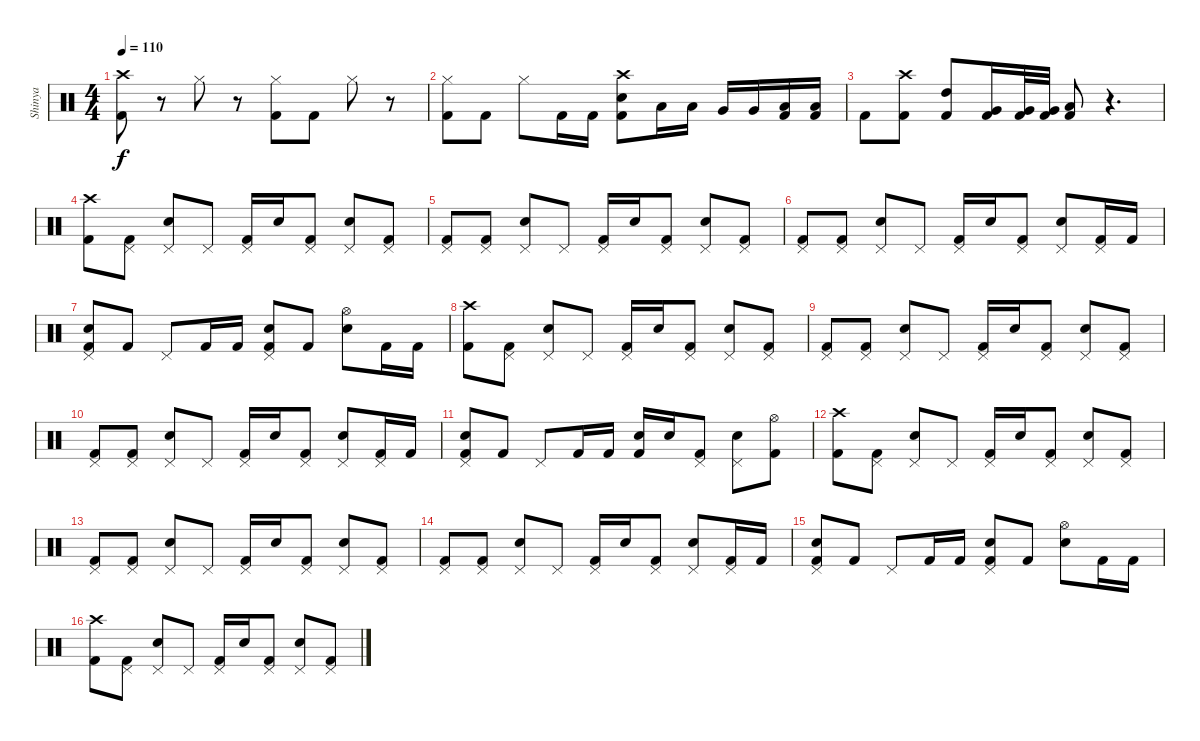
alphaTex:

\track ("Shinya" "Shinya") {instrument percussion}
\staff {score}
\articulation defaults
\ts (4 4)
\tempo 110
\clef neutral
\ks c
("Crash high (hit)" "Kick (hit) 2").8{dy f} r.8 "Hi-Hat (closed)".8 r.8 ("Hi-Hat (closed)" "Kick (hit) 2").8 "Kick (hit) 2".8 "Hi-Hat (closed)".8 r.8 |
("Hi-Hat (closed)" "Kick (hit) 2").8 "Kick (hit) 2".8 "Hi-Hat (closed)".8 "Kick (hit) 2".16 "Kick (hit) 2".16 ("Crash high (hit)" "Electric Snare (hit)" "Kick (hit) 2").8 "Low Tom (hit)".16 "Low Tom (hit)".16 "Very Low Tom (hit)".16 "Very Low Tom (hit)".16 ("Low Floor Tom (hit)" "Kick (hit) 2").16 ("Low Floor Tom (hit)" "Kick (hit) 2").16 |
"Kick (hit) 2".8 ("Crash high (hit)" "Kick (hit) 2").8 ("High Tom (hit)" "Kick (hit) 2").8 ("Very Low Tom (hit)" "Kick (hit) 2").16 ("Very Low Tom (hit)" "Kick (hit) 2").32 ("Very Low Tom (hit)" "Kick (hit) 2").32 ("Low Floor Tom (hit)" "Kick (hit) 2").8 r.4{d} |
("Crash high (hit)" "Kick (hit) 2").8 ("Pedal Hi-Hat (hit)" "Kick (hit) 2").8 ("Pedal Hi-Hat (hit)" "Electric Snare (hit)").8 "Pedal Hi-Hat (hit)".8 ("Pedal Hi-Hat (hit)" "Kick (hit) 2").16 "Electric Snare (hit)".16 ("Pedal Hi-Hat (hit)" "Kick (hit) 2").8 ("Pedal Hi-Hat (hit)" "Electric Snare (hit)").8 ("Pedal Hi-Hat (hit)" "Kick (hit) 2").8 |
("Pedal Hi-Hat (hit)" "Kick (hit) 2").8 ("Pedal Hi-Hat (hit)" "Kick (hit) 2").8 ("Pedal Hi-Hat (hit)" "Electric Snare (hit)").8 "Pedal Hi-Hat (hit)".8 ("Pedal Hi-Hat (hit)" "Kick (hit) 2").16 "Electric Snare (hit)".16 ("Pedal Hi-Hat (hit)" "Kick (hit) 2").8 ("Pedal Hi-Hat (hit)" "Electric Snare (hit)").8 ("Pedal Hi-Hat (hit)" "Kick (hit) 2").8 |
("Pedal Hi-Hat (hit)" "Kick (hit) 2").8 ("Pedal Hi-Hat (hit)" "Kick (hit) 2").8 ("Pedal Hi-Hat (hit)" "Electric Snare (hit)").8 "Pedal Hi-Hat (hit)".8 ("Pedal Hi-Hat (hit)" "Kick (hit) 2").16 "Electric Snare (hit)".16 ("Pedal Hi-Hat (hit)" "Kick (hit) 2").8 ("Pedal Hi-Hat (hit)" "Electric Snare (hit)").8 ("Pedal Hi-Hat (hit)" "Kick (hit) 2").16 "Kick (hit) 2".16 |
("Pedal Hi-Hat (hit)" "Electric Snare (hit)" "Kick (hit) 2").8 "Kick (hit) 2".8 "Pedal Hi-Hat (hit)".8 "Kick (hit) 2".16 "Kick (hit) 2".16 ("Pedal Hi-Hat (hit)" "Electric Snare (hit)" "Kick (hit) 2").8 "Kick (hit) 2".8 ("Hi-Hat (open)" "Electric Snare (hit)").8 "Kick (hit) 2".16 "Kick (hit) 2".16 |
("Crash high (hit)" "Kick (hit) 2").8 ("Pedal Hi-Hat (hit)" "Kick (hit) 2").8 ("Pedal Hi-Hat (hit)" "Electric Snare (hit)").8 "Pedal Hi-Hat (hit)".8 ("Pedal Hi-Hat (hit)" "Kick (hit) 2").16 "Electric Snare (hit)".16 ("Pedal Hi-Hat (hit)" "Kick (hit) 2").8 ("Pedal Hi-Hat (hit)" "Electric Snare (hit)").8 ("Pedal Hi-Hat (hit)" "Kick (hit) 2").8 |
("Pedal Hi-Hat (hit)" "Kick (hit) 2").8 ("Pedal Hi-Hat (hit)" "Kick (hit) 2").8 ("Pedal Hi-Hat (hit)" "Electric Snare (hit)").8 "Pedal Hi-Hat (hit)".8 ("Pedal Hi-Hat (hit)" "Kick (hit) 2").16 "Electric Snare (hit)".16 ("Pedal Hi-Hat (hit)" "Kick (hit) 2").8 ("Pedal Hi-Hat (hit)" "Electric Snare (hit)").8 ("Pedal Hi-Hat (hit)" "Kick (hit) 2").8 |
("Pedal Hi-Hat (hit)" "Kick (hit) 2").8 ("Pedal Hi-Hat (hit)" "Kick (hit) 2").8 ("Pedal Hi-Hat (hit)" "Electric Snare (hit)").8 "Pedal Hi-Hat (hit)".8 ("Pedal Hi-Hat (hit)" "Kick (hit) 2").16 "Electric Snare (hit)".16 ("Pedal Hi-Hat (hit)" "Kick (hit) 2").8 ("Pedal Hi-Hat (hit)" "Electric Snare (hit)").8 ("Pedal Hi-Hat (hit)" "Kick (hit) 2").16 "Kick (hit) 2".16 |
("Pedal Hi-Hat (hit)" "Electric Snare (hit)" "Kick (hit) 2").8 "Kick (hit) 2".8 "Pedal Hi-Hat (hit)".8 "Kick (hit) 2".16 "Kick (hit) 2".16 ("Electric Snare (hit)" "Kick (hit) 2").16 "Electric Snare (hit)".16 ("Pedal Hi-Hat (hit)" "Kick (hit) 2").8 ("Pedal Hi-Hat (hit)" "Electric Snare (hit)").8 ("Hi-Hat (open)" "Kick (hit) 2").8 |
("Crash high (hit)" "Kick (hit) 2").8 ("Pedal Hi-Hat (hit)" "Kick (hit) 2").8 ("Pedal Hi-Hat (hit)" "Electric Snare (hit)").8 "Pedal Hi-Hat (hit)".8 ("Pedal Hi-Hat (hit)" "Kick (hit) 2").16 "Electric Snare (hit)".16 ("Pedal Hi-Hat (hit)" "Kick (hit) 2").8 ("Pedal Hi-Hat (hit)" "Electric Snare (hit)").8 ("Pedal Hi-Hat (hit)" "Kick (hit) 2").8 |
("Pedal Hi-Hat (hit)" "Kick (hit) 2").8 ("Pedal Hi-Hat (hit)" "Kick (hit) 2").8 ("Pedal Hi-Hat (hit)" "Electric Snare (hit)").8 "Pedal Hi-Hat (hit)".8 ("Pedal Hi-Hat (hit)" "Kick (hit) 2").16 "Electric Snare (hit)".16 ("Pedal Hi-Hat (hit)" "Kick (hit) 2").8 ("Pedal Hi-Hat (hit)" "Electric Snare (hit)").8 ("Pedal Hi-Hat (hit)" "Kick (hit) 2").8 |
("Pedal Hi-Hat (hit)" "Kick (hit) 2").8 ("Pedal Hi-Hat (hit)" "Kick (hit) 2").8 ("Pedal Hi-Hat (hit)" "Electric Snare (hit)").8 "Pedal Hi-Hat (hit)".8 ("Pedal Hi-Hat (hit)" "Kick (hit) 2").16 "Electric Snare (hit)".16 ("Pedal Hi-Hat (hit)" "Kick (hit) 2").8 ("Pedal Hi-Hat (hit)" "Electric Snare (hit)").8 ("Pedal Hi-Hat (hit)" "Kick (hit) 2").16 "Kick (hit) 2".16 |
("Pedal Hi-Hat (hit)" "Electric Snare (hit)" "Kick (hit) 2").8 "Kick (hit) 2".8 "Pedal Hi-Hat (hit)".8 "Kick (hit) 2".16 "Kick (hit) 2".16 ("Pedal Hi-Hat (hit)" "Electric Snare (hit)" "Kick (hit) 2").8 "Kick (hit) 2".8 ("Hi-Hat (open)" "Electric Snare (hit)").8 "Kick (hit) 2".16 "Kick (hit) 2".16 |
("Crash high (hit)" "Kick (hit) 2").8 ("Pedal Hi-Hat (hit)" "Kick (hit) 2").8 ("Pedal Hi-Hat (hit)" "Electric Snare (hit)").8 "Pedal Hi-Hat (hit)".8 ("Pedal Hi-Hat (hit)" "Kick (hit) 2").16 "Electric Snare (hit)".16 ("Pedal Hi-Hat (hit)" "Kick (hit) 2").8 ("Pedal Hi-Hat (hit)" "Electric Snare (hit)").8 ("Pedal Hi-Hat (hit)" "Kick (hit) 2").8
